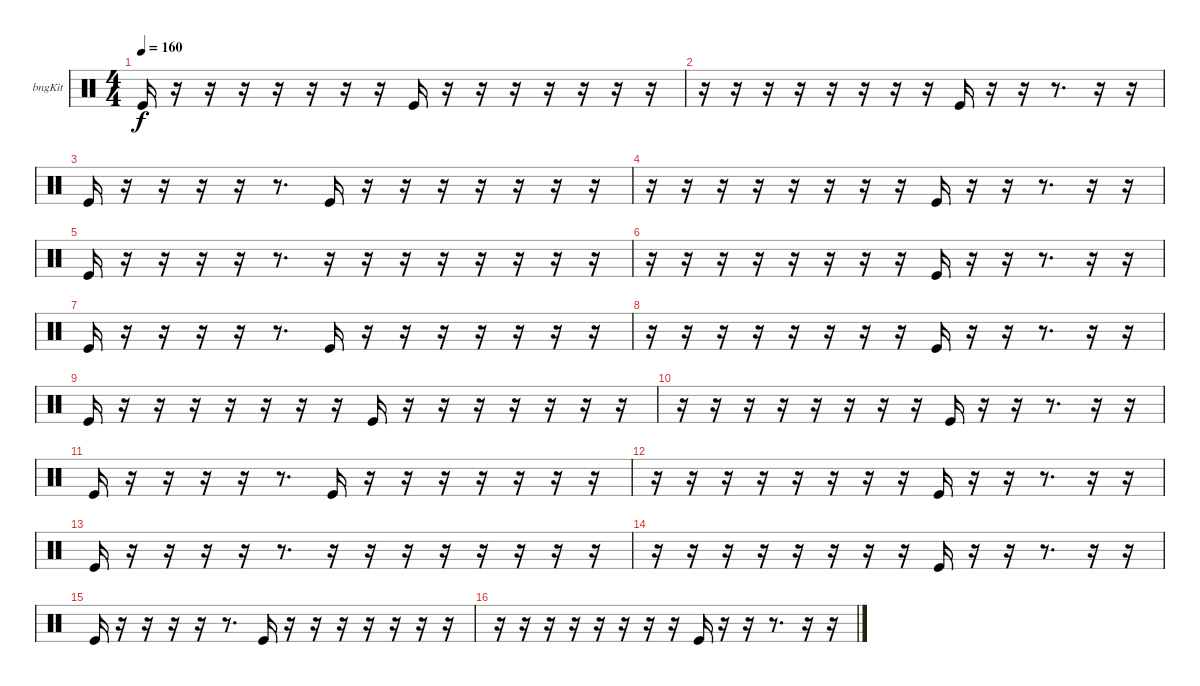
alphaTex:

\bracketExtendMode groupsimilarinstruments
\firstSystemTrackNameOrientation horizontal
\otherSystemsTrackNameOrientation horizontal
\track ("Bongos" "bngKit") {instrument percussion}
\staff {score}
\articulation defaults
\ts (4 4)
\tempo 160
\clef neutral
\ks c "Kick (hit)".16{dy f}
r.16 r.16 r.16 r.16 r.16 r.16 r.16 "Kick (hit)".16 r.16 r.16 r.16 r.16 r.16 r.16 r.16 |
r.16 r.16 r.16 r.16 r.16 r.16 r.16 r.16 "Kick (hit)".16 r.16 r.16 r.8{d} r.16 r.16 |
"Kick (hit)".16 r.16 r.16 r.16 r.16 r.8{d} "Kick (hit)".16 r.16 r.16 r.16 r.16 r.16 r.16 r.16 |
r.16 r.16 r.16 r.16 r.16 r.16 r.16 r.16 "Kick (hit)".16 r.16 r.16 r.8{d} r.16 r.16 |
"Kick (hit)".16 r.16 r.16 r.16 r.16 r.8{d} r.16 r.16 r.16 r.16 r.16 r.16 r.16 r.16 |
r.16 r.16 r.16 r.16 r.16 r.16 r.16 r.16 "Kick (hit)".16 r.16 r.16 r.8{d} r.16 r.16 |
"Kick (hit)".16 r.16 r.16 r.16 r.16 r.8{d} "Kick (hit)".16 r.16 r.16 r.16 r.16 r.16 r.16 r.16 |
r.16 r.16 r.16 r.16 r.16 r.16 r.16 r.16 "Kick (hit)".16 r.16 r.16 r.8{d} r.16 r.16 |
"Kick (hit)".16 r.16 r.16 r.16 r.16 r.16 r.16 r.16 "Kick (hit)".16 r.16 r.16 r.16 r.16 r.16 r.16 r.16 |
r.16 r.16 r.16 r.16 r.16 r.16 r.16 r.16 "Kick (hit)".16 r.16 r.16 r.8{d} r.16 r.16 |
"Kick (hit)".16 r.16 r.16 r.16 r.16 r.8{d} "Kick (hit)".16 r.16 r.16 r.16 r.16 r.16 r.16 r.16 |
r.16 r.16 r.16 r.16 r.16 r.16 r.16 r.16 "Kick (hit)".16 r.16 r.16 r.8{d} r.16 r.16 |
"Kick (hit)".16 r.16 r.16 r.16 r.16 r.8{d} r.16 r.16 r.16 r.16 r.16 r.16 r.16 r.16 |
r.16 r.16 r.16 r.16 r.16 r.16 r.16 r.16 "Kick (hit)".16 r.16 r.16 r.8{d} r.16 r.16 |
"Kick (hit)".16 r.16 r.16 r.16 r.16 r.8{d} "Kick (hit)".16 r.16 r.16 r.16 r.16 r.16 r.16 r.16 |
r.16 r.16 r.16 r.16 r.16 r.16 r.16 r.16 "Kick (hit)".16 r.16 r.16 r.8{d} r.16 r.16
